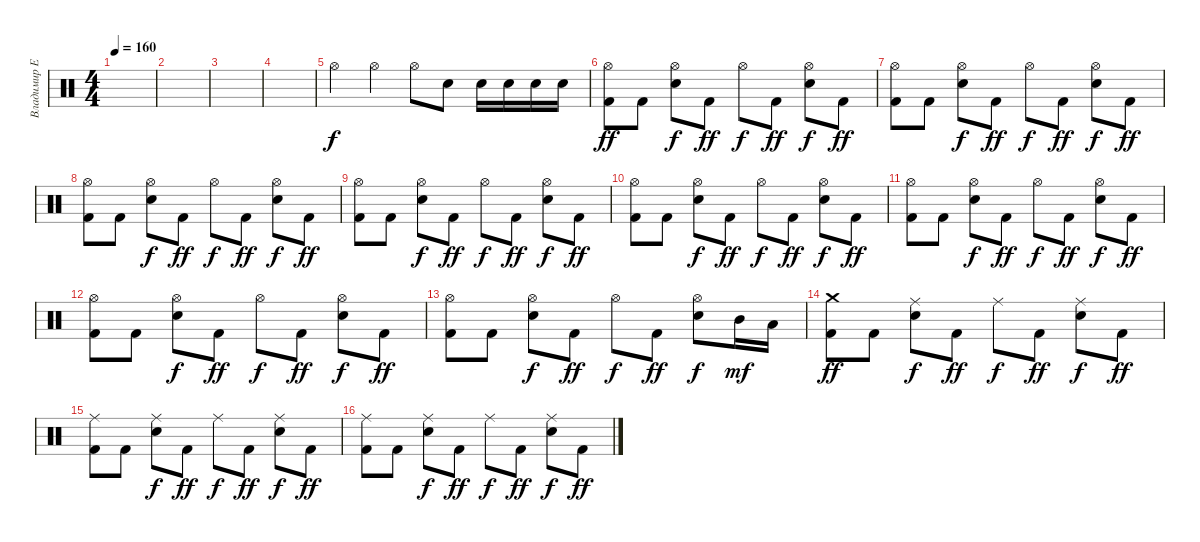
\track ("Владимир Ермаков" "Владимир Е") {instrument percussion}
\staff {score}
\articulation defaults
\ts (4 4)
\tempo 160
\clef neutral
\ks c
|
|
|
|
"Hi-Hat (open)".4 "Hi-Hat (open)".4 "Hi-Hat (open)".8 "Electric Snare (hit)".8 "Electric Snare (hit)".16 "Electric Snare (hit)".16 "Electric Snare (hit)".16 "Electric Snare (hit)".16 |
("Hi-Hat (open)" "Kick (hit) 2").8{dy ff} "Kick (hit) 2".8 ("Hi-Hat (open)" "Electric Snare (hit)").8{dy f} "Kick (hit) 2".8{dy ff} "Hi-Hat (open)".8{dy f} "Kick (hit) 2".8{dy ff} ("Hi-Hat (open)" "Electric Snare (hit)").8{dy f} "Kick (hit) 2".8{dy ff} |
("Hi-Hat (open)" "Kick (hit) 2").8 "Kick (hit) 2".8 ("Hi-Hat (open)" "Electric Snare (hit)").8{dy f} "Kick (hit) 2".8{dy ff} "Hi-Hat (open)".8{dy f} "Kick (hit) 2".8{dy ff} ("Hi-Hat (open)" "Electric Snare (hit)").8{dy f} "Kick (hit) 2".8{dy ff} |
("Hi-Hat (open)" "Kick (hit) 2").8 "Kick (hit) 2".8 ("Hi-Hat (open)" "Electric Snare (hit)").8{dy f} "Kick (hit) 2".8{dy ff} "Hi-Hat (open)".8{dy f} "Kick (hit) 2".8{dy ff} ("Hi-Hat (open)" "Electric Snare (hit)").8{dy f} "Kick (hit) 2".8{dy ff} |
("Hi-Hat (open)" "Kick (hit) 2").8 "Kick (hit) 2".8 ("Hi-Hat (open)" "Electric Snare (hit)").8{dy f} "Kick (hit) 2".8{dy ff} "Hi-Hat (open)".8{dy f} "Kick (hit) 2".8{dy ff} ("Hi-Hat (open)" "Electric Snare (hit)").8{dy f} "Kick (hit) 2".8{dy ff} |
("Hi-Hat (open)" "Kick (hit) 2").8 "Kick (hit) 2".8 ("Hi-Hat (open)" "Electric Snare (hit)").8{dy f} "Kick (hit) 2".8{dy ff} "Hi-Hat (open)".8{dy f} "Kick (hit) 2".8{dy ff} ("Hi-Hat (open)" "Electric Snare (hit)").8{dy f} "Kick (hit) 2".8{dy ff} |
("Hi-Hat (open)" "Kick (hit) 2").8 "Kick (hit) 2".8 ("Hi-Hat (open)" "Electric Snare (hit)").8{dy f} "Kick (hit) 2".8{dy ff} "Hi-Hat (open)".8{dy f} "Kick (hit) 2".8{dy ff} ("Hi-Hat (open)" "Electric Snare (hit)").8{dy f} "Kick (hit) 2".8{dy ff} |
("Hi-Hat (open)" "Kick (hit) 2").8 "Kick (hit) 2".8 ("Hi-Hat (open)" "Electric Snare (hit)").8{dy f} "Kick (hit) 2".8{dy ff} "Hi-Hat (open)".8{dy f} "Kick (hit) 2".8{dy ff} ("Hi-Hat (open)" "Electric Snare (hit)").8{dy f} "Kick (hit) 2".8{dy ff} |
("Hi-Hat (open)" "Kick (hit) 2").8 "Kick (hit) 2".8 ("Hi-Hat (open)" "Electric Snare (hit)").8{dy f} "Kick (hit) 2".8{dy ff} "Hi-Hat (open)".8{dy f} "Kick (hit) 2".8{dy ff} ("Hi-Hat (open)" "Electric Snare (hit)").8{dy f} "Mid Tom (hit)".16{dy mf} "Low Tom (hit)".16 |
("Crash medium (hit)" "Kick (hit) 2").8{dy ff} "Kick (hit) 2".8 ("Ride (middle)" "Electric Snare (hit)").8{dy f} "Kick (hit) 2".8{dy ff} "Ride (middle)".8{dy f} "Kick (hit) 2".8{dy ff} ("Ride (middle)" "Electric Snare (hit)").8{dy f} "Kick (hit) 2".8{dy ff} |
("Ride (middle)" "Kick (hit) 2").8 "Kick (hit) 2".8 ("Ride (middle)" "Electric Snare (hit)").8{dy f} "Kick (hit) 2".8{dy ff} "Ride (middle)".8{dy f} "Kick (hit) 2".8{dy ff} ("Ride (middle)" "Electric Snare (hit)").8{dy f} "Kick (hit) 2".8{dy ff} |
("Ride (middle)" "Kick (hit) 2").8 "Kick (hit) 2".8 ("Ride (middle)" "Electric Snare (hit)").8{dy f} "Kick (hit) 2".8{dy ff} "Ride (middle)".8{dy f} "Kick (hit) 2".8{dy ff} ("Ride (middle)" "Electric Snare (hit)").8{dy f} "Kick (hit) 2".8{dy ff}
